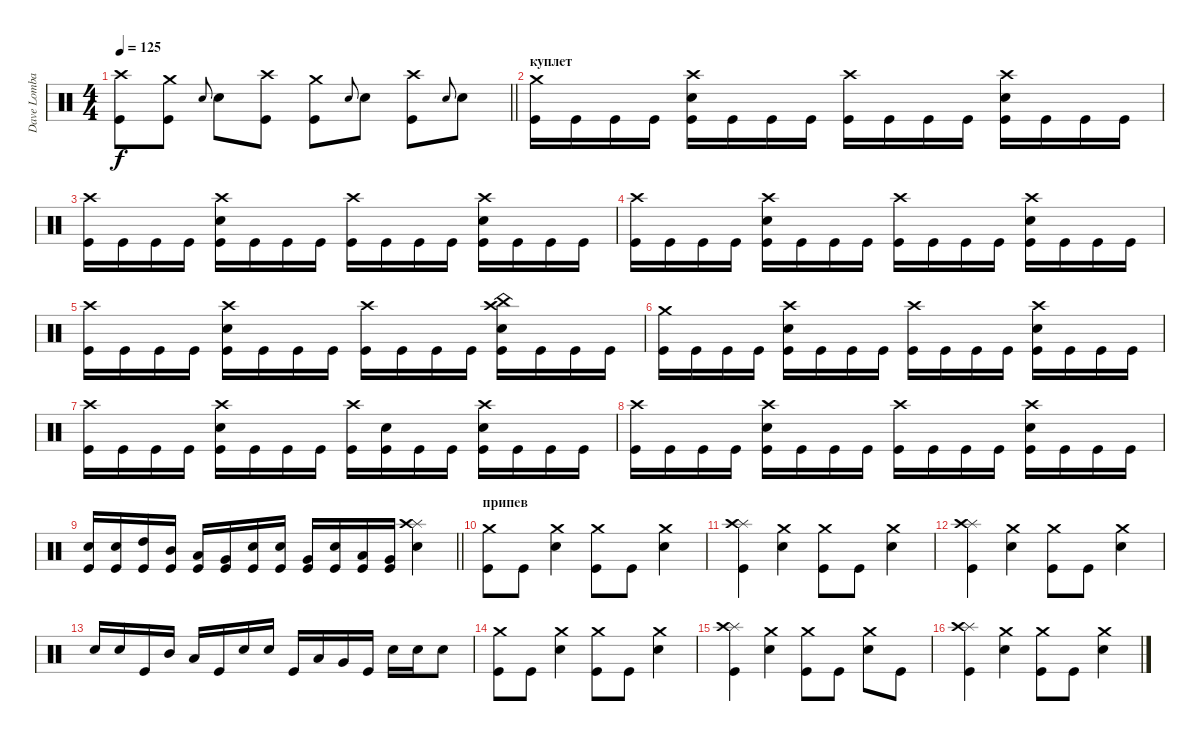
\track ("Dave Lombardo" "Dave Lomba") {instrument percussion}
\staff {score}
\articulation defaults
\ts (4 4)
\tempo 125
\clef neutral
\barLineRight lightlight
\ks c
("Crash high (hit)" "Kick (hit)").8{dy f} ("Crash medium (hit)" "Kick (hit)").8 "Snare (hit) 2".8{gr onbeat} "Snare (hit) 2".8 ("Crash high (hit)" "Kick (hit)").8 ("Crash medium (hit)" "Kick (hit)").8 "Snare (hit) 2".8{gr onbeat} "Snare (hit) 2".8 ("Crash high (hit)" "Kick (hit)").8 "Snare (hit) 2".8{gr onbeat} "Snare (hit) 2".8 |
\section ("" "куплет")
("Crash medium (hit)" "Kick (hit)").16 "Kick (hit)".16 "Kick (hit)".16 "Kick (hit)".16 ("Crash high (hit)" "Snare (hit) 2" "Kick (hit)").16 "Kick (hit)".16 "Kick (hit)".16 "Kick (hit)".16 ("Crash high (hit)" "Kick (hit)").16 "Kick (hit)".16 "Kick (hit)".16 "Kick (hit)".16 ("Crash high (hit)" "Snare (hit) 2" "Kick (hit)").16 "Kick (hit)".16 "Kick (hit)".16 "Kick (hit)".16 |
("Crash high (hit)" "Kick (hit)").16 "Kick (hit)".16 "Kick (hit)".16 "Kick (hit)".16 ("Crash high (hit)" "Snare (hit) 2" "Kick (hit)").16 "Kick (hit)".16 "Kick (hit)".16 "Kick (hit)".16 ("Crash high (hit)" "Kick (hit)").16 "Kick (hit)".16 "Kick (hit)".16 "Kick (hit)".16 ("Crash high (hit)" "Snare (hit) 2" "Kick (hit)").16 "Kick (hit)".16 "Kick (hit)".16 "Kick (hit)".16 |
("Crash high (hit)" "Kick (hit)").16 "Kick (hit)".16 "Kick (hit)".16 "Kick (hit)".16 ("Crash high (hit)" "Snare (hit) 2" "Kick (hit)").16 "Kick (hit)".16 "Kick (hit)".16 "Kick (hit)".16 ("Crash high (hit)" "Kick (hit)").16 "Kick (hit)".16 "Kick (hit)".16 "Kick (hit)".16 ("Crash high (hit)" "Snare (hit) 2" "Kick (hit)").16 "Kick (hit)".16 "Kick (hit)".16 "Kick (hit)".16 |
("Crash high (hit)" "Kick (hit)").16 "Kick (hit)".16 "Kick (hit)".16 "Kick (hit)".16 ("Crash high (hit)" "Snare (hit) 2" "Kick (hit)").16 "Kick (hit)".16 "Kick (hit)".16 "Kick (hit)".16 ("Crash high (hit)" "Kick (hit)").16 "Kick (hit)".16 "Kick (hit)".16 "Kick (hit)".16 ("China (hit)" "Crash high (hit)" "Snare (hit) 2" "Kick (hit)").16 "Kick (hit)".16 "Kick (hit)".16 "Kick (hit)".16 |
("Crash medium (hit)" "Kick (hit)").16 "Kick (hit)".16 "Kick (hit)".16 "Kick (hit)".16 ("Crash high (hit)" "Snare (hit) 2" "Kick (hit)").16 "Kick (hit)".16 "Kick (hit)".16 "Kick (hit)".16 ("Crash high (hit)" "Kick (hit)").16 "Kick (hit)".16 "Kick (hit)".16 "Kick (hit)".16 ("Crash high (hit)" "Snare (hit) 2" "Kick (hit)").16 "Kick (hit)".16 "Kick (hit)".16 "Kick (hit)".16 |
("Crash high (hit)" "Kick (hit)").16 "Kick (hit)".16 "Kick (hit)".16 "Kick (hit)".16 ("Crash high (hit)" "Snare (hit) 2" "Kick (hit)").16 "Kick (hit)".16 "Kick (hit)".16 "Kick (hit)".16 ("Crash high (hit)" "Kick (hit)").16 ("Snare (hit) 2" "Kick (hit)").16 "Kick (hit)".16 "Kick (hit)".16 ("Crash high (hit)" "Snare (hit) 2" "Kick (hit)").16 "Kick (hit)".16 "Kick (hit)".16 "Kick (hit)".16 |
("Crash high (hit)" "Kick (hit)").16 "Kick (hit)".16 "Kick (hit)".16 "Kick (hit)".16 ("Crash high (hit)" "Snare (hit) 2" "Kick (hit)").16 "Kick (hit)".16 "Kick (hit)".16 "Kick (hit)".16 ("Crash high (hit)" "Kick (hit)").16 "Kick (hit)".16 "Kick (hit)".16 "Kick (hit)".16 ("Crash high (hit)" "Snare (hit) 2" "Kick (hit)").16 "Kick (hit)".16 "Kick (hit)".16 "Kick (hit)".16 |
\barLineRight lightlight
("Snare (hit) 2" "Kick (hit)").16 ("Snare (hit) 2" "Kick (hit)").16 ("High Tom (hit)" "Kick (hit)").16 ("Mid Tom (hit)" "Kick (hit)").16 ("Low Tom (hit)" "Kick (hit)").16 ("Very Low Tom (hit)" "Kick (hit)").16 ("Snare (hit) 2" "Kick (hit)").16 ("Snare (hit) 2" "Kick (hit)").16 ("Very Low Tom (hit)" "Kick (hit)").16 ("Snare (hit) 2" "Kick (hit)").16 ("Low Tom (hit)" "Kick (hit)").16 ("Very Low Tom (hit)" "Kick (hit)").16 ("Splash (hit)" "Crash high (hit)" "Snare (hit) 2").4 |
\section ("" "припев")
("Crash medium (hit)" "Kick (hit)").8 "Kick (hit)".8 ("Crash medium (hit)" "Snare (hit) 2").4 ("Crash medium (hit)" "Kick (hit)").8 "Kick (hit)".8 ("Crash medium (hit)" "Snare (hit) 2").4 |
("Splash (hit)" "Crash high (hit)" "Kick (hit)").4 ("Crash medium (hit)" "Snare (hit) 2").4 ("Crash medium (hit)" "Kick (hit)").8 "Kick (hit)".8 ("Crash medium (hit)" "Snare (hit) 2").4 |
("Splash (hit)" "Crash high (hit)" "Kick (hit)").4 ("Crash medium (hit)" "Snare (hit) 2").4 ("Crash medium (hit)" "Kick (hit)").8 "Kick (hit)".8 ("Crash medium (hit)" "Snare (hit) 2").4 |
"Snare (hit) 2".16 "Snare (hit) 2".16 "Kick (hit)".16 "Mid Tom (hit)".16 "Low Tom (hit)".16 "Kick (hit)".16 "Snare (hit) 2".16 "Snare (hit) 2".16 "Kick (hit)".16 "Low Tom (hit)".16 "Very Low Tom (hit)".16 "Kick (hit)".16 "Snare (hit) 2".16 "Snare (hit) 2".16 "Snare (hit) 2".8 |
("Crash medium (hit)" "Kick (hit)").8 "Kick (hit)".8 ("Crash medium (hit)" "Snare (hit) 2").4 ("Crash medium (hit)" "Kick (hit)").8 "Kick (hit)".8 ("Crash medium (hit)" "Snare (hit) 2").4 |
("Splash (hit)" "Crash high (hit)" "Kick (hit)").4 ("Crash medium (hit)" "Snare (hit) 2").4 ("Crash medium (hit)" "Kick (hit)").8 "Kick (hit)".8 ("Crash medium (hit)" "Snare (hit) 2").8 "Kick (hit)".8 |
("Splash (hit)" "Crash high (hit)" "Kick (hit)").4 ("Crash medium (hit)" "Snare (hit) 2").4 ("Crash medium (hit)" "Kick (hit)").8 "Kick (hit)".8 ("Crash medium (hit)" "Snare (hit) 2").4
